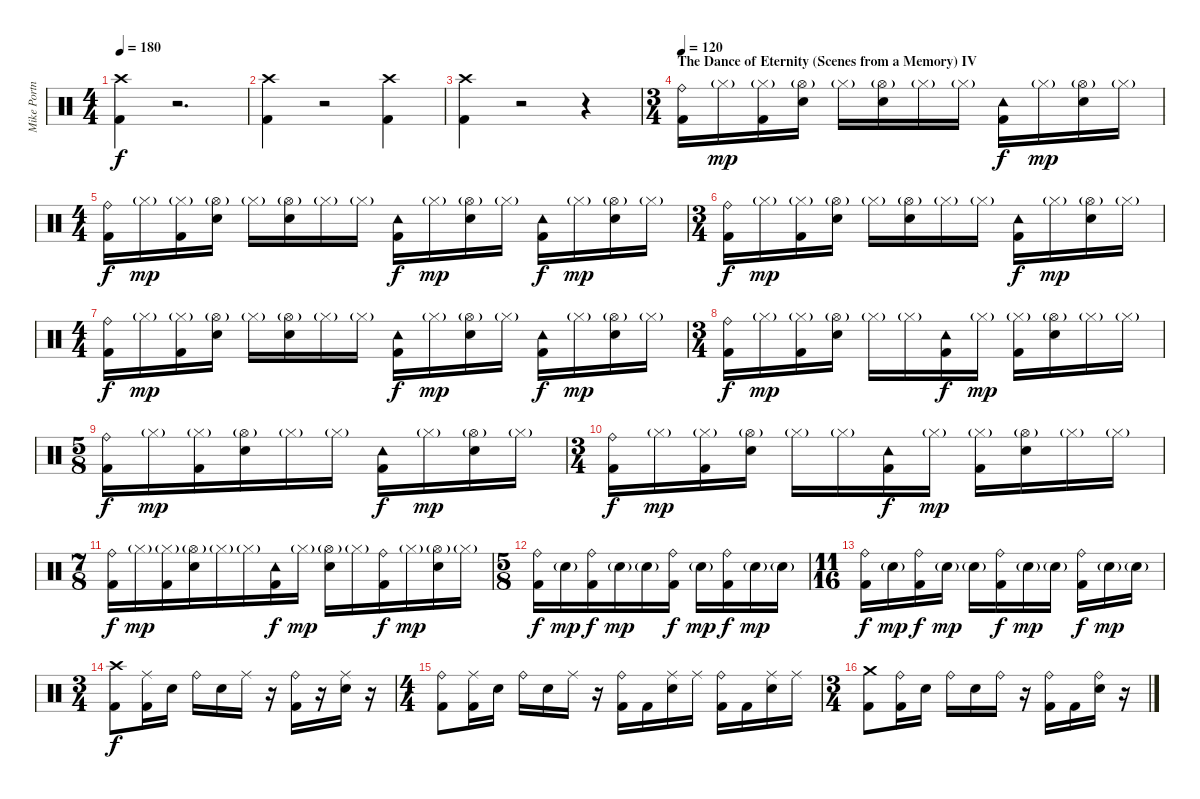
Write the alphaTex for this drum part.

\track ("Mike Portnoy Drums" "Mike Portn") {instrument percussion}
\staff {score}
\articulation defaults
\ts (4 4)
\tempo 180
\clef neutral
\ks c
("Crash high (hit)" "Kick (hit) 2").4{dy f} r.2{d} |
("Crash high (hit)" "Kick (hit) 2").4 r.2 ("Kick (hit) 2" "Crash high (hit)").4 |
("Crash high (hit)" "Kick (hit) 2").4 r.2 r.4 |
\ts (3 4)
\section ("" "The Dance of Eternity (Scenes from a Memory) IV")
\tempo 120
("Ride (bell)" "Kick (hit) 2").16 "Hi-Hat (closed)"{g}.16{dy mp} ("Hi-Hat (closed)"{g} "Kick (hit) 2").16 ("Hi-Hat (open)"{g} "Snare (hit) 2").16 "Hi-Hat (closed)"{g}.16 ("Hi-Hat (open)"{g} "Snare (hit) 2").16 "Hi-Hat (closed)"{g}.16 "Hi-Hat (closed)"{g}.16 ("Tambourine (hit)" "Kick (hit) 2").16{dy f} "Hi-Hat (closed)"{g}.16{dy mp} ("Hi-Hat (open)"{g} "Snare (hit) 2").16 "Hi-Hat (closed)"{g}.16 |
\ts (4 4)
("Ride (bell)" "Kick (hit) 2").16{dy f} "Hi-Hat (closed)"{g}.16{dy mp} ("Hi-Hat (closed)"{g} "Kick (hit) 2").16 ("Hi-Hat (open)"{g} "Snare (hit) 2").16 "Hi-Hat (closed)"{g}.16 ("Hi-Hat (open)"{g} "Snare (hit) 2").16 "Hi-Hat (closed)"{g}.16 "Hi-Hat (closed)"{g}.16 ("Tambourine (hit)" "Kick (hit) 2").16{dy f} "Hi-Hat (closed)"{g}.16{dy mp} ("Hi-Hat (open)"{g} "Snare (hit) 2").16 "Hi-Hat (closed)"{g}.16 ("Tambourine (hit)" "Kick (hit) 2").16{dy f} "Hi-Hat (closed)"{g}.16{dy mp} ("Hi-Hat (open)"{g} "Snare (hit) 2").16 "Hi-Hat (closed)"{g}.16 |
\ts (3 4)
("Ride (bell)" "Kick (hit) 2").16{dy f} "Hi-Hat (closed)"{g}.16{dy mp} ("Hi-Hat (closed)"{g} "Kick (hit) 2").16 ("Hi-Hat (open)"{g} "Snare (hit) 2").16 "Hi-Hat (closed)"{g}.16 ("Hi-Hat (open)"{g} "Snare (hit) 2").16 "Hi-Hat (closed)"{g}.16 "Hi-Hat (closed)"{g}.16 ("Tambourine (hit)" "Kick (hit) 2").16{dy f} "Hi-Hat (closed)"{g}.16{dy mp} ("Hi-Hat (open)"{g} "Snare (hit) 2").16 "Hi-Hat (closed)"{g}.16 |
\ts (4 4)
("Ride (bell)" "Kick (hit) 2").16{dy f} "Hi-Hat (closed)"{g}.16{dy mp} ("Hi-Hat (closed)"{g} "Kick (hit) 2").16 ("Hi-Hat (open)"{g} "Snare (hit) 2").16 "Hi-Hat (closed)"{g}.16 ("Hi-Hat (open)"{g} "Snare (hit) 2").16 "Hi-Hat (closed)"{g}.16 "Hi-Hat (closed)"{g}.16 ("Tambourine (hit)" "Kick (hit) 2").16{dy f} "Hi-Hat (closed)"{g}.16{dy mp} ("Hi-Hat (open)"{g} "Snare (hit) 2").16 "Hi-Hat (closed)"{g}.16 ("Tambourine (hit)" "Kick (hit) 2").16{dy f} "Hi-Hat (closed)"{g}.16{dy mp} ("Hi-Hat (open)"{g} "Snare (hit) 2").16 "Hi-Hat (closed)"{g}.16 |
\ts (3 4)
("Ride (bell)" "Kick (hit) 2").16{dy f} "Hi-Hat (closed)"{g}.16{dy mp} ("Hi-Hat (closed)"{g} "Kick (hit) 2").16 ("Hi-Hat (open)"{g} "Snare (hit) 2").16 "Hi-Hat (closed)"{g}.16 "Hi-Hat (closed)"{g}.16 ("Tambourine (hit)" "Kick (hit) 2").16{dy f} "Hi-Hat (closed)"{g}.16{dy mp} ("Hi-Hat (closed)"{g} "Kick (hit) 2").16 ("Hi-Hat (open)"{g} "Snare (hit) 2").16 "Hi-Hat (closed)"{g}.16 "Hi-Hat (closed)"{g}.16 |
\ts (5 8)
("Ride (bell)" "Kick (hit) 2").16{dy f} "Hi-Hat (closed)"{g}.16{dy mp} ("Hi-Hat (closed)"{g} "Kick (hit) 2").16 ("Hi-Hat (open)"{g} "Snare (hit) 2").16 "Hi-Hat (closed)"{g}.16 "Hi-Hat (closed)"{g}.16 ("Tambourine (hit)" "Kick (hit) 2").16{dy f} "Hi-Hat (closed)"{g}.16{dy mp} ("Hi-Hat (open)"{g} "Snare (hit) 2").16 "Hi-Hat (closed)"{g}.16 |
\ts (3 4)
("Ride (bell)" "Kick (hit) 2").16{dy f} "Hi-Hat (closed)"{g}.16{dy mp} ("Hi-Hat (closed)"{g} "Kick (hit) 2").16 ("Hi-Hat (open)"{g} "Snare (hit) 2").16 "Hi-Hat (closed)"{g}.16 "Hi-Hat (closed)"{g}.16 ("Tambourine (hit)" "Kick (hit) 2").16{dy f} "Hi-Hat (closed)"{g}.16{dy mp} ("Hi-Hat (closed)"{g} "Kick (hit) 2").16 ("Hi-Hat (open)"{g} "Snare (hit) 2").16 "Hi-Hat (closed)"{g}.16 "Hi-Hat (closed)"{g}.16 |
\ts (7 8)
("Ride (bell)" "Kick (hit) 2").16{dy f} "Hi-Hat (closed)"{g}.16{dy mp} ("Hi-Hat (closed)"{g} "Kick (hit) 2").16 ("Hi-Hat (open)"{g} "Snare (hit) 2").16 "Hi-Hat (closed)"{g}.16 "Hi-Hat (closed)"{g}.16 ("Tambourine (hit)" "Kick (hit) 2").16{dy f} "Hi-Hat (closed)"{g}.16{dy mp} ("Hi-Hat (open)"{g} "Snare (hit) 2").16 "Hi-Hat (closed)"{g}.16 ("Ride (bell)" "Kick (hit) 2").16{dy f} "Hi-Hat (closed)"{g}.16{dy mp} ("Hi-Hat (open)"{g} "Snare (hit) 2").16 "Hi-Hat (closed)"{g}.16 |
\ts (5 8)
("Ride (bell)" "Kick (hit) 2").16{dy f} "Snare (hit) 2"{g}.16{dy mp} ("Ride (bell)" "Kick (hit) 2").16{dy f} "Snare (hit) 2"{g}.16{dy mp} "Snare (hit) 2"{g}.16 ("Ride (bell)" "Kick (hit) 2").16{dy f} "Snare (hit) 2"{g}.16{dy mp} ("Ride (bell)" "Kick (hit) 2").16{dy f} "Snare (hit) 2"{g}.16{dy mp} "Snare (hit) 2"{g}.16 |
\ts (11 16)
("Ride (bell)" "Kick (hit) 2").16{dy f} "Snare (hit) 2"{g}.16{dy mp} ("Ride (bell)" "Kick (hit) 2").16{dy f} "Snare (hit) 2"{g}.16{dy mp} "Snare (hit) 2"{g}.16 ("Ride (bell)" "Kick (hit) 2").16{dy f} "Snare (hit) 2"{g}.16{dy mp} "Snare (hit) 2"{g}.16 ("Ride (bell)" "Kick (hit) 2").16{dy f} "Snare (hit) 2"{g}.16{dy mp} "Snare (hit) 2"{g}.16 |
\ts (3 4)
("Crash high (hit)" "Kick (hit) 2").8{dy f} ("Ride (middle)" "Kick (hit) 2").16 "Snare (hit) 2".16 "Ride (bell)".16 "Snare (hit) 2".16 "Ride (middle)".16 r.16 ("Ride (bell)" "Kick (hit) 2").16 r.16 ("Ride (middle)" "Snare (hit) 2").16 r.16 |
\ts (4 4)
("Ride (bell)" "Kick (hit) 2").8 ("Ride (middle)" "Kick (hit) 2").16 "Snare (hit) 2".16 "Ride (bell)".16 "Snare (hit) 2".16 "Ride (middle)".16 r.16 ("Ride (bell)" "Kick (hit) 2").16 "Kick (hit) 2".16 ("Ride (middle)" "Snare (hit) 2").16 "Ride (middle)".16 ("Ride (bell)" "Kick (hit) 2").16 "Kick (hit) 2".16 ("Ride (middle)" "Snare (hit) 2").16 "Ride (middle)".16 |
\ts (3 4)
("Crash medium (hit)" "Kick (hit) 2").8 ("Ride (bell)" "Kick (hit) 2").16 "Snare (hit) 2".16 "Ride (bell)".16 "Snare (hit) 2".16 "Ride (bell)".16 r.16 ("Ride (bell)" "Kick (hit) 2").16 "Kick (hit) 2".16 ("Ride (bell)" "Snare (hit) 2").16 r.16
